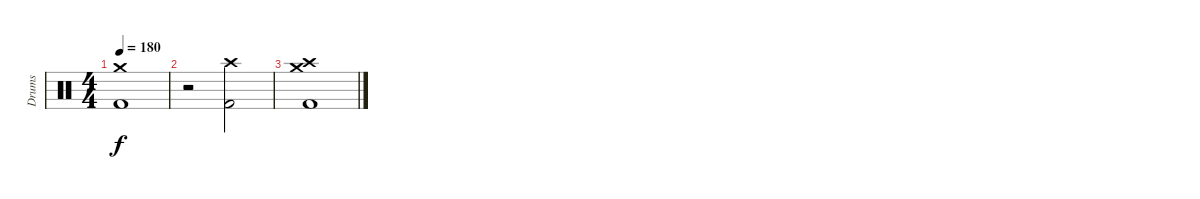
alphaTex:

\track ("Drums" "Drums") {instrument percussion}
\staff {score}
\articulation defaults
\ts (4 4)
\tempo 180
\clef neutral
\ks c
("Crash medium (hit)" "Kick (hit) 2").1{dy f} |
r.2 ("Crash high (hit)" "Kick (hit) 2").2 |
("Crash high (hit)" "Crash medium (hit)" "Kick (hit) 2").1
